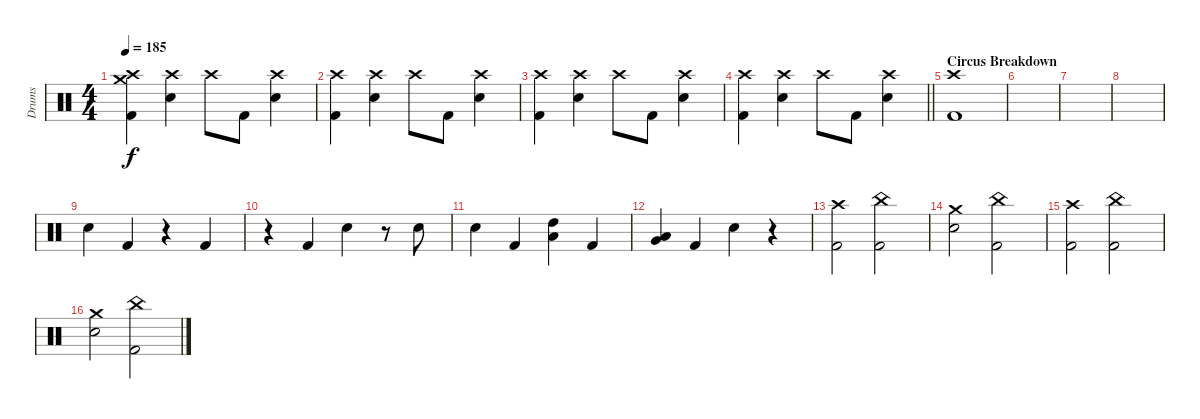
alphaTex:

\track ("Drums" "Drums") {instrument percussion}
\staff {score}
\articulation defaults
\ts (4 4)
\tempo 185
\clef neutral
\ks c
("Crash high (hit)" "Crash medium (hit)" "Kick (hit) 2").4{dy f} ("Crash high (hit)" "Electric Snare (hit)").4 "Crash high (hit)".8 "Kick (hit) 2".8 ("Crash high (hit)" "Electric Snare (hit)").4 |
("Crash high (hit)" "Kick (hit) 2").4 ("Crash high (hit)" "Electric Snare (hit)").4 "Crash high (hit)".8 "Kick (hit) 2".8 ("Crash high (hit)" "Electric Snare (hit)").4 |
("Crash high (hit)" "Kick (hit) 2").4 ("Crash high (hit)" "Electric Snare (hit)").4 "Crash high (hit)".8 "Kick (hit) 2".8 ("Crash high (hit)" "Electric Snare (hit)").4 |
\barLineRight lightlight
("Crash high (hit)" "Kick (hit) 2").4 ("Crash high (hit)" "Electric Snare (hit)").4 "Crash high (hit)".8 "Kick (hit) 2".8 ("Crash high (hit)" "Electric Snare (hit)").4 |
\section ("" "Circus Breakdown")
("Crash high (hit)" "Kick (hit) 2").1 |
|
|
|
"Electric Snare (hit)".4 "Kick (hit) 2".4 r.4 "Kick (hit) 2".4 |
r.4 "Kick (hit) 2".4 "Electric Snare (hit)".4 r.8 "Electric Snare (hit)".8 |
"Electric Snare (hit)".4 "Kick (hit) 2".4 ("High Tom (hit)" "Low Tom (hit)").4 "Kick (hit) 2".4 |
("Very Low Tom (hit)" "Low Tom (hit)").4 "Kick (hit) 2".4 "Electric Snare (hit)".4 r.4 |
("Crash high (hit)" "Kick (hit) 2").2 ("China (hit)" "Kick (hit) 2").2 |
("Crash medium (hit)" "Electric Snare (hit)").2 ("China (hit)" "Kick (hit) 2").2 |
("Crash high (hit)" "Kick (hit) 2").2 ("China (hit)" "Kick (hit) 2").2 |
("Crash medium (hit)" "Electric Snare (hit)").2 ("China (hit)" "Kick (hit) 2").2
